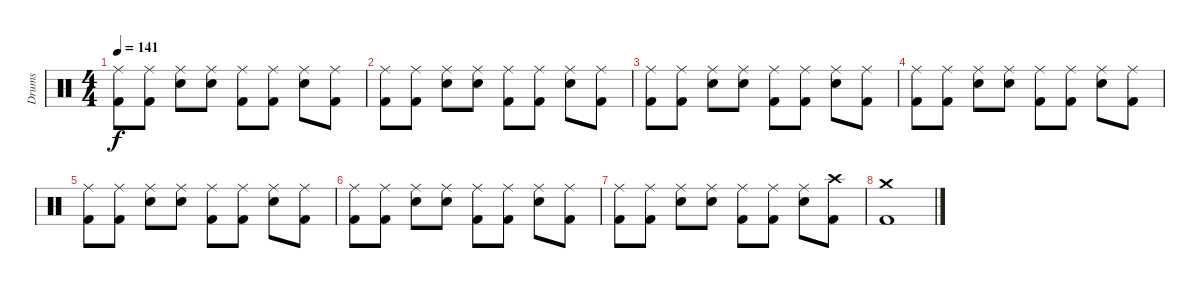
\track ("Drums" "Drums") {instrument percussion}
\staff {score}
\articulation defaults
\ts (4 4)
\tempo 141
\clef neutral
\ks c
("Ride (middle)" "Kick (hit) 2").8{dy f} ("Ride (middle)" "Kick (hit) 2").8 ("Ride (middle)" "Electric Snare (hit)").8 ("Ride (middle)" "Electric Snare (hit)").8 ("Ride (middle)" "Kick (hit) 2").8 ("Ride (middle)" "Kick (hit) 2").8 ("Ride (middle)" "Electric Snare (hit)").8 ("Ride (middle)" "Kick (hit) 2").8 |
("Ride (middle)" "Kick (hit) 2").8 ("Ride (middle)" "Kick (hit) 2").8 ("Ride (middle)" "Electric Snare (hit)").8 ("Ride (middle)" "Electric Snare (hit)").8 ("Ride (middle)" "Kick (hit) 2").8 ("Ride (middle)" "Kick (hit) 2").8 ("Ride (middle)" "Electric Snare (hit)").8 ("Ride (middle)" "Kick (hit) 2").8 |
("Ride (middle)" "Kick (hit) 2").8 ("Ride (middle)" "Kick (hit) 2").8 ("Ride (middle)" "Electric Snare (hit)").8 ("Ride (middle)" "Electric Snare (hit)").8 ("Ride (middle)" "Kick (hit) 2").8 ("Ride (middle)" "Kick (hit) 2").8 ("Ride (middle)" "Electric Snare (hit)").8 ("Ride (middle)" "Kick (hit) 2").8 |
("Ride (middle)" "Kick (hit) 2").8 ("Ride (middle)" "Kick (hit) 2").8 ("Ride (middle)" "Electric Snare (hit)").8 ("Ride (middle)" "Electric Snare (hit)").8 ("Ride (middle)" "Kick (hit) 2").8 ("Ride (middle)" "Kick (hit) 2").8 ("Ride (middle)" "Electric Snare (hit)").8 ("Ride (middle)" "Kick (hit) 2").8 |
("Ride (middle)" "Kick (hit) 2").8 ("Ride (middle)" "Kick (hit) 2").8 ("Ride (middle)" "Electric Snare (hit)").8 ("Ride (middle)" "Electric Snare (hit)").8 ("Ride (middle)" "Kick (hit) 2").8 ("Ride (middle)" "Kick (hit) 2").8 ("Ride (middle)" "Electric Snare (hit)").8 ("Ride (middle)" "Kick (hit) 2").8 |
("Ride (middle)" "Kick (hit) 2").8 ("Ride (middle)" "Kick (hit) 2").8 ("Ride (middle)" "Electric Snare (hit)").8 ("Ride (middle)" "Electric Snare (hit)").8 ("Ride (middle)" "Kick (hit) 2").8 ("Ride (middle)" "Kick (hit) 2").8 ("Ride (middle)" "Electric Snare (hit)").8 ("Ride (middle)" "Kick (hit) 2").8 |
("Ride (middle)" "Kick (hit) 2").8 ("Ride (middle)" "Kick (hit) 2").8 ("Ride (middle)" "Electric Snare (hit)").8 ("Ride (middle)" "Electric Snare (hit)").8 ("Ride (middle)" "Kick (hit) 2").8 ("Ride (middle)" "Kick (hit) 2").8 ("Ride (middle)" "Electric Snare (hit)").8 ("Crash high (hit)" "Kick (hit) 2").8 |
("Crash medium (hit)" "Kick (hit) 2").1
